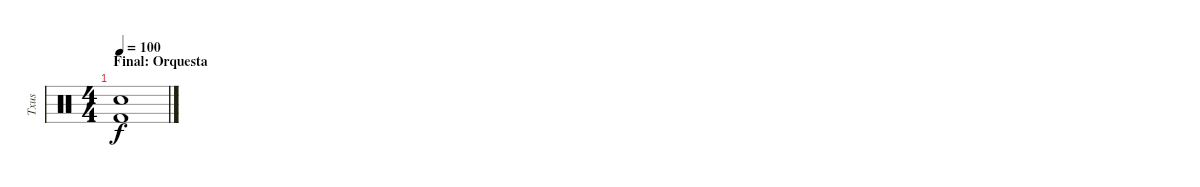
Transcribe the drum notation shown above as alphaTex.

\track ("Txus" "Txus") {instrument percussion}
\staff {score}
\articulation defaults
\ts (4 4)
\section ("" "Final: Orquesta")
\tempo 100
\clef neutral
\ks c
("Kick (hit) 2" "Electric Snare (hit)").1{dy f}
